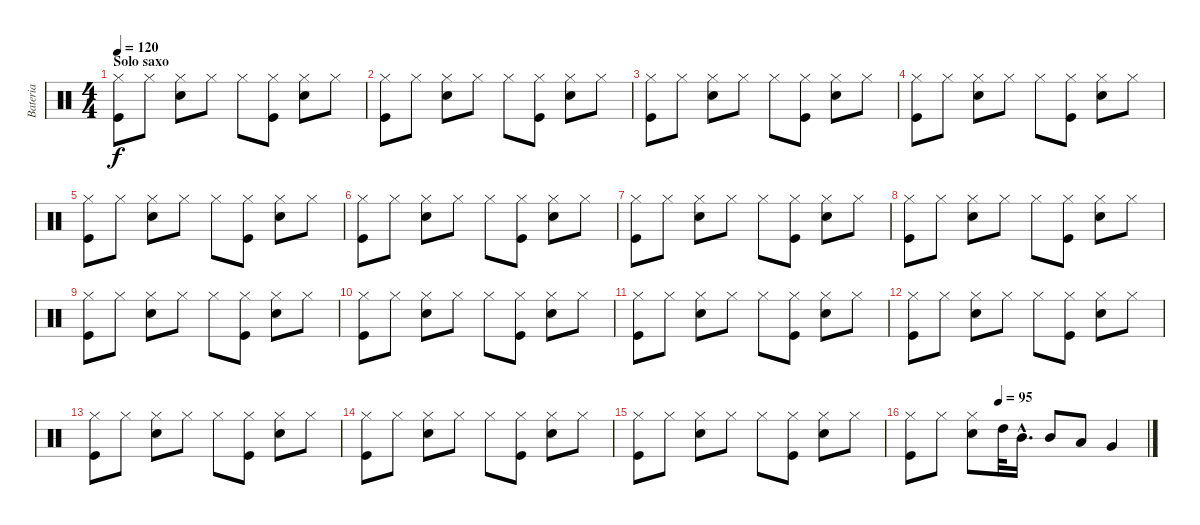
\track ("Bateria" "Bateria") {instrument percussion}
\staff {score}
\articulation defaults
\ts (4 4)
\section ("" "Solo saxo")
\tempo 120
\clef neutral
\ks c
("Hi-Hat (closed)" "Kick (hit)").8{dy f} "Hi-Hat (closed)".8 ("Hi-Hat (closed)" "Snare (hit) 2").8 "Hi-Hat (closed)".8 "Hi-Hat (closed)".8 ("Hi-Hat (closed)" "Kick (hit)").8 ("Hi-Hat (closed)" "Snare (hit) 2").8 "Hi-Hat (closed)".8 |
("Hi-Hat (closed)" "Kick (hit)").8 "Hi-Hat (closed)".8 ("Hi-Hat (closed)" "Snare (hit) 2").8 "Hi-Hat (closed)".8 "Hi-Hat (closed)".8 ("Hi-Hat (closed)" "Kick (hit)").8 ("Hi-Hat (closed)" "Snare (hit) 2").8 "Hi-Hat (closed)".8 |
("Hi-Hat (closed)" "Kick (hit)").8 "Hi-Hat (closed)".8 ("Hi-Hat (closed)" "Snare (hit) 2").8 "Hi-Hat (closed)".8 "Hi-Hat (closed)".8 ("Hi-Hat (closed)" "Kick (hit)").8 ("Hi-Hat (closed)" "Snare (hit) 2").8 "Hi-Hat (closed)".8 |
("Hi-Hat (closed)" "Kick (hit)").8 "Hi-Hat (closed)".8 ("Hi-Hat (closed)" "Snare (hit) 2").8 "Hi-Hat (closed)".8 "Hi-Hat (closed)".8 ("Hi-Hat (closed)" "Kick (hit)").8 ("Hi-Hat (closed)" "Snare (hit) 2").8 "Hi-Hat (closed)".8 |
("Hi-Hat (closed)" "Kick (hit)").8 "Hi-Hat (closed)".8 ("Hi-Hat (closed)" "Snare (hit) 2").8 "Hi-Hat (closed)".8 "Hi-Hat (closed)".8 ("Hi-Hat (closed)" "Kick (hit)").8 ("Hi-Hat (closed)" "Snare (hit) 2").8 "Hi-Hat (closed)".8 |
("Hi-Hat (closed)" "Kick (hit)").8 "Hi-Hat (closed)".8 ("Hi-Hat (closed)" "Snare (hit) 2").8 "Hi-Hat (closed)".8 "Hi-Hat (closed)".8 ("Hi-Hat (closed)" "Kick (hit)").8 ("Hi-Hat (closed)" "Snare (hit) 2").8 "Hi-Hat (closed)".8 |
("Hi-Hat (closed)" "Kick (hit)").8 "Hi-Hat (closed)".8 ("Hi-Hat (closed)" "Snare (hit) 2").8 "Hi-Hat (closed)".8 "Hi-Hat (closed)".8 ("Hi-Hat (closed)" "Kick (hit)").8 ("Hi-Hat (closed)" "Snare (hit) 2").8 "Hi-Hat (closed)".8 |
("Hi-Hat (closed)" "Kick (hit)").8 "Hi-Hat (closed)".8 ("Hi-Hat (closed)" "Snare (hit) 2").8 "Hi-Hat (closed)".8 "Hi-Hat (closed)".8 ("Hi-Hat (closed)" "Kick (hit)").8 ("Hi-Hat (closed)" "Snare (hit) 2").8 "Hi-Hat (closed)".8 |
("Hi-Hat (closed)" "Kick (hit)").8 "Hi-Hat (closed)".8 ("Hi-Hat (closed)" "Snare (hit) 2").8 "Hi-Hat (closed)".8 "Hi-Hat (closed)".8 ("Hi-Hat (closed)" "Kick (hit)").8 ("Hi-Hat (closed)" "Snare (hit) 2").8 "Hi-Hat (closed)".8 |
("Hi-Hat (closed)" "Kick (hit)").8 "Hi-Hat (closed)".8 ("Hi-Hat (closed)" "Snare (hit) 2").8 "Hi-Hat (closed)".8 "Hi-Hat (closed)".8 ("Hi-Hat (closed)" "Kick (hit)").8 ("Hi-Hat (closed)" "Snare (hit) 2").8 "Hi-Hat (closed)".8 |
("Hi-Hat (closed)" "Kick (hit)").8 "Hi-Hat (closed)".8 ("Hi-Hat (closed)" "Snare (hit) 2").8 "Hi-Hat (closed)".8 "Hi-Hat (closed)".8 ("Hi-Hat (closed)" "Kick (hit)").8 ("Hi-Hat (closed)" "Snare (hit) 2").8 "Hi-Hat (closed)".8 |
("Hi-Hat (closed)" "Kick (hit)").8 "Hi-Hat (closed)".8 ("Hi-Hat (closed)" "Snare (hit) 2").8 "Hi-Hat (closed)".8 "Hi-Hat (closed)".8 ("Hi-Hat (closed)" "Kick (hit)").8 ("Hi-Hat (closed)" "Snare (hit) 2").8 "Hi-Hat (closed)".8 |
("Hi-Hat (closed)" "Kick (hit)").8 "Hi-Hat (closed)".8 ("Hi-Hat (closed)" "Snare (hit) 2").8 "Hi-Hat (closed)".8 "Hi-Hat (closed)".8 ("Hi-Hat (closed)" "Kick (hit)").8 ("Hi-Hat (closed)" "Snare (hit) 2").8 "Hi-Hat (closed)".8 |
("Hi-Hat (closed)" "Kick (hit)").8 "Hi-Hat (closed)".8 ("Hi-Hat (closed)" "Snare (hit) 2").8 "Hi-Hat (closed)".8 "Hi-Hat (closed)".8 ("Hi-Hat (closed)" "Kick (hit)").8 ("Hi-Hat (closed)" "Snare (hit) 2").8 "Hi-Hat (closed)".8 |
("Hi-Hat (closed)" "Kick (hit)").8 "Hi-Hat (closed)".8 ("Hi-Hat (closed)" "Snare (hit) 2").8 "Hi-Hat (closed)".8 "Hi-Hat (closed)".8 ("Hi-Hat (closed)" "Kick (hit)").8 ("Hi-Hat (closed)" "Snare (hit) 2").8 "Hi-Hat (closed)".8 |
\tempo (95 0.375)
("Hi-Hat (closed)" "Kick (hit)").8 "Hi-Hat (closed)".8 ("Hi-Hat (closed)" "Snare (hit) 2").8 "High Tom (hit)".32 "Mid Tom (hit)"{hac}.16{d} "Mid Tom (hit)".8 "Low Tom (hit)".8 "Very Low Tom (hit)".4
